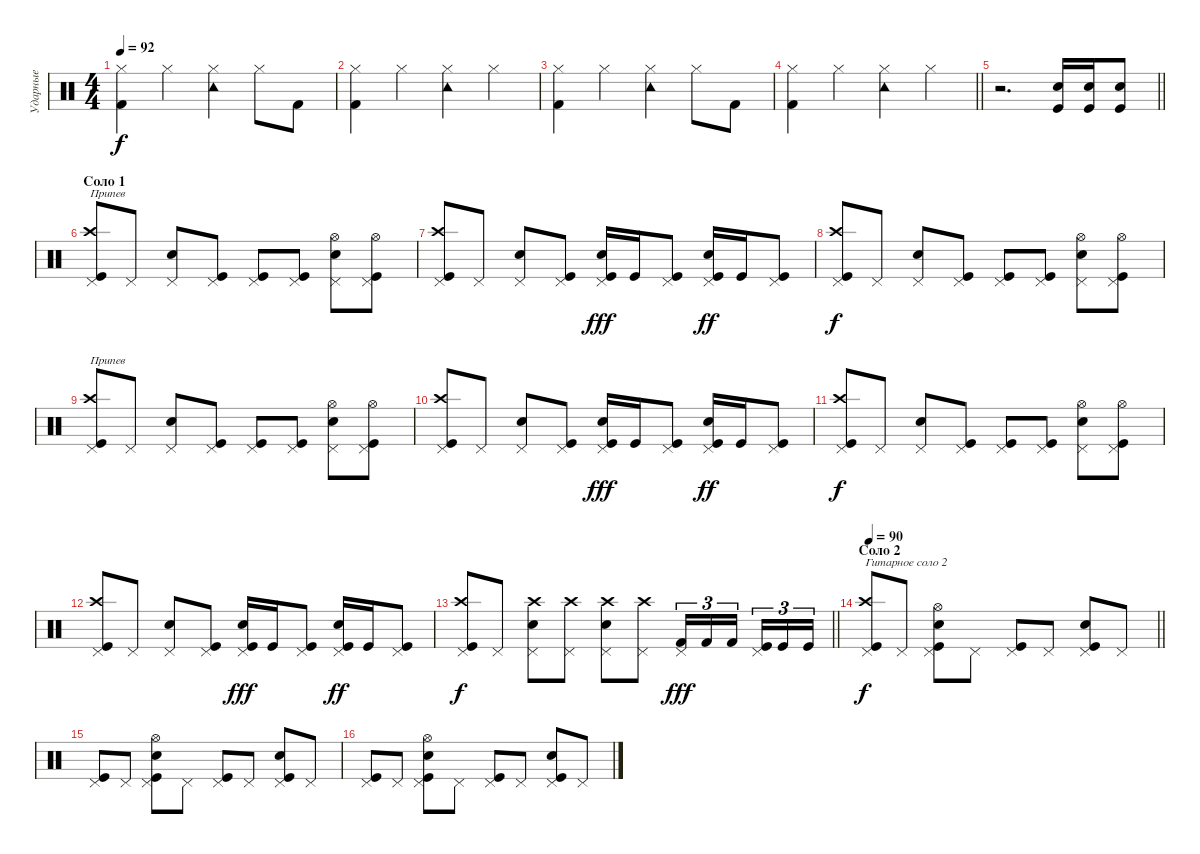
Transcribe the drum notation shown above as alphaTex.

\track ("Ударные" "Ударные") {instrument percussion}
\staff {score}
\articulation defaults
\ts (4 4)
\tempo 92
\clef neutral
\ks c
("Hi-Hat (closed)" "Kick (hit) 2").4{dy f} "Hi-Hat (closed)".4 ("Tambourine (hit)" "Hi-Hat (closed)").4 "Hi-Hat (closed)".8 "Kick (hit) 2".8 |
("Hi-Hat (closed)" "Kick (hit) 2").4 "Hi-Hat (closed)".4 ("Tambourine (hit)" "Hi-Hat (closed)").4 "Hi-Hat (closed)".4 |
("Hi-Hat (closed)" "Kick (hit) 2").4 "Hi-Hat (closed)".4 ("Tambourine (hit)" "Hi-Hat (closed)").4 "Hi-Hat (closed)".8 "Kick (hit) 2".8 |
\barLineRight lightlight
("Hi-Hat (closed)" "Kick (hit) 2").4 "Hi-Hat (closed)".4 ("Tambourine (hit)" "Hi-Hat (closed)").4 "Hi-Hat (closed)".4 |
\barLineRight lightlight
r.2{d} ("Snare (hit) 2" "Kick (hit)").16 ("Snare (hit) 2" "Kick (hit)").16 ("Snare (hit) 2" "Kick (hit)").8 |
\section ("" "Соло 1")
("Crash high (hit)" "Kick (hit)" "Pedal Hi-Hat (hit)").8{txt "Припев"} "Pedal Hi-Hat (hit)".8 ("Snare (hit) 2" "Pedal Hi-Hat (hit)").8 ("Kick (hit)" "Pedal Hi-Hat (hit)").8 ("Kick (hit)" "Pedal Hi-Hat (hit)").8 ("Kick (hit)" "Pedal Hi-Hat (hit)").8 ("Hi-Hat (open)" "Snare (hit) 2" "Pedal Hi-Hat (hit)").8 ("Hi-Hat (open)" "Kick (hit)" "Pedal Hi-Hat (hit)").8 |
("Crash high (hit)" "Kick (hit)" "Pedal Hi-Hat (hit)").8 "Pedal Hi-Hat (hit)".8 ("Snare (hit) 2" "Pedal Hi-Hat (hit)").8 ("Kick (hit)" "Pedal Hi-Hat (hit)").8 ("Kick (hit)" "Snare (hit) 2" "Pedal Hi-Hat (hit)").16{dy fff} "Kick (hit)".16 ("Kick (hit)" "Pedal Hi-Hat (hit)").8 ("Kick (hit)" "Snare (hit) 2" "Pedal Hi-Hat (hit)").16{dy ff} "Kick (hit)".16 ("Kick (hit)" "Pedal Hi-Hat (hit)").8 |
("Crash high (hit)" "Kick (hit)" "Pedal Hi-Hat (hit)").8{dy f} "Pedal Hi-Hat (hit)".8 ("Snare (hit) 2" "Pedal Hi-Hat (hit)").8 ("Kick (hit)" "Pedal Hi-Hat (hit)").8 ("Kick (hit)" "Pedal Hi-Hat (hit)").8 ("Kick (hit)" "Pedal Hi-Hat (hit)").8 ("Hi-Hat (open)" "Snare (hit) 2" "Pedal Hi-Hat (hit)").8 ("Hi-Hat (open)" "Kick (hit)" "Pedal Hi-Hat (hit)").8 |
("Crash high (hit)" "Kick (hit)" "Pedal Hi-Hat (hit)").8{txt "Припев"} "Pedal Hi-Hat (hit)".8 ("Snare (hit) 2" "Pedal Hi-Hat (hit)").8 ("Kick (hit)" "Pedal Hi-Hat (hit)").8 ("Kick (hit)" "Pedal Hi-Hat (hit)").8 ("Kick (hit)" "Pedal Hi-Hat (hit)").8 ("Hi-Hat (open)" "Snare (hit) 2" "Pedal Hi-Hat (hit)").8 ("Hi-Hat (open)" "Kick (hit)" "Pedal Hi-Hat (hit)").8 |
("Crash high (hit)" "Kick (hit)" "Pedal Hi-Hat (hit)").8 "Pedal Hi-Hat (hit)".8 ("Snare (hit) 2" "Pedal Hi-Hat (hit)").8 ("Kick (hit)" "Pedal Hi-Hat (hit)").8 ("Kick (hit)" "Snare (hit) 2" "Pedal Hi-Hat (hit)").16{dy fff} "Kick (hit)".16 ("Kick (hit)" "Pedal Hi-Hat (hit)").8 ("Kick (hit)" "Snare (hit) 2" "Pedal Hi-Hat (hit)").16{dy ff} "Kick (hit)".16 ("Kick (hit)" "Pedal Hi-Hat (hit)").8 |
("Crash high (hit)" "Kick (hit)" "Pedal Hi-Hat (hit)").8{dy f} "Pedal Hi-Hat (hit)".8 ("Snare (hit) 2" "Pedal Hi-Hat (hit)").8 ("Kick (hit)" "Pedal Hi-Hat (hit)").8 ("Kick (hit)" "Pedal Hi-Hat (hit)").8 ("Kick (hit)" "Pedal Hi-Hat (hit)").8 ("Hi-Hat (open)" "Snare (hit) 2" "Pedal Hi-Hat (hit)").8 ("Hi-Hat (open)" "Kick (hit)" "Pedal Hi-Hat (hit)").8 |
("Crash high (hit)" "Kick (hit)" "Pedal Hi-Hat (hit)").8 "Pedal Hi-Hat (hit)".8 ("Snare (hit) 2" "Pedal Hi-Hat (hit)").8 ("Kick (hit)" "Pedal Hi-Hat (hit)").8 ("Kick (hit)" "Snare (hit) 2" "Pedal Hi-Hat (hit)").16{dy fff} "Kick (hit)".16 ("Kick (hit)" "Pedal Hi-Hat (hit)").8 ("Kick (hit)" "Snare (hit) 2" "Pedal Hi-Hat (hit)").16{dy ff} "Kick (hit)".16 ("Kick (hit)" "Pedal Hi-Hat (hit)").8 |
\barLineRight lightlight
("Kick (hit)" "Crash high (hit)" "Pedal Hi-Hat (hit)").8{dy f} "Pedal Hi-Hat (hit)".8 ("Snare (hit) 2" "Crash high (hit)" "Pedal Hi-Hat (hit)").8 ("Crash high (hit)" "Pedal Hi-Hat (hit)").8 ("Snare (hit) 2" "Crash high (hit)" "Pedal Hi-Hat (hit)").8 ("Crash high (hit)" "Pedal Hi-Hat (hit)").8 ("Kick (hit) 2" "Pedal Hi-Hat (hit)").16{tu (3 2) dy fff} "Kick (hit) 2".16{tu (3 2)} "Kick (hit) 2".16{tu (3 2) beam splitsecondary} ("Kick (hit)" "Pedal Hi-Hat (hit)").16{tu (3 2)} "Kick (hit)".16{tu (3 2)} "Kick (hit)".16{tu (3 2)} |
\section ("" "Соло 2")
\tempo 90
\barLineRight lightlight
("Crash high (hit)" "Kick (hit)" "Pedal Hi-Hat (hit)").8{txt "Гитарное соло 2" dy f} "Pedal Hi-Hat (hit)".8 ("Hi-Hat (open)" "Snare (hit) 2" "Kick (hit)" "Pedal Hi-Hat (hit)").8 "Pedal Hi-Hat (hit)".8 ("Kick (hit)" "Pedal Hi-Hat (hit)").8 "Pedal Hi-Hat (hit)".8 ("Kick (hit)" "Snare (hit) 2" "Pedal Hi-Hat (hit)").8 "Pedal Hi-Hat (hit)".8 |
("Kick (hit)" "Pedal Hi-Hat (hit)").8 "Pedal Hi-Hat (hit)".8 ("Hi-Hat (open)" "Snare (hit) 2" "Kick (hit)" "Pedal Hi-Hat (hit)").8 "Pedal Hi-Hat (hit)".8 ("Kick (hit)" "Pedal Hi-Hat (hit)").8 "Pedal Hi-Hat (hit)".8 ("Kick (hit)" "Snare (hit) 2" "Pedal Hi-Hat (hit)").8 "Pedal Hi-Hat (hit)".8 |
("Kick (hit)" "Pedal Hi-Hat (hit)").8 "Pedal Hi-Hat (hit)".8 ("Hi-Hat (open)" "Snare (hit) 2" "Kick (hit)" "Pedal Hi-Hat (hit)").8 "Pedal Hi-Hat (hit)".8 ("Kick (hit)" "Pedal Hi-Hat (hit)").8 "Pedal Hi-Hat (hit)".8 ("Kick (hit)" "Snare (hit) 2" "Pedal Hi-Hat (hit)").8 "Pedal Hi-Hat (hit)".8
